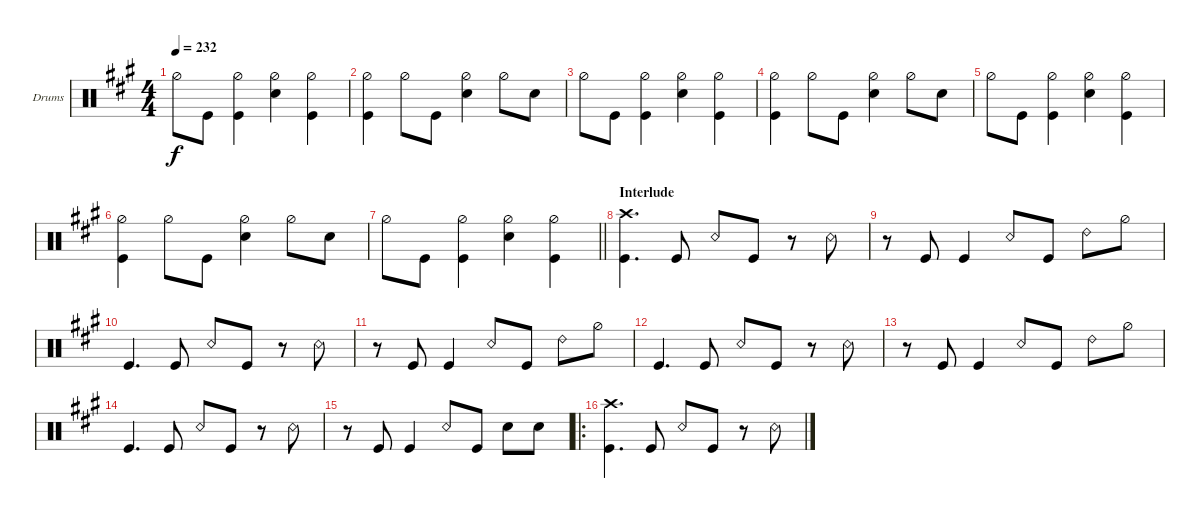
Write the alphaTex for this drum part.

\defaultSystemsLayout 4
\bracketExtendMode groupsimilarinstruments
\firstSystemTrackNameOrientation horizontal
\otherSystemsTrackNameOrientation horizontal
\track ("Drums" "Drums") {instrument percussion}
\staff {score}
\articulation defaults
\ts (4 4)
\tempo 232
\clef neutral
\ks a "Hi-Hat (half)".8{dy f} "Kick (hit)".8
("Kick (hit)" "Hi-Hat (half)").4 ("Snare (hit) 2" "Hi-Hat (half)").4 ("Kick (hit)" "Hi-Hat (half)").4 |
("Kick (hit)" "Hi-Hat (half)").4 "Hi-Hat (half)".8 "Kick (hit)".8 ("Snare (hit) 2" "Hi-Hat (half)").4 "Hi-Hat (half)".8 "Snare (hit) 2".8 |
"Hi-Hat (half)".8 "Kick (hit)".8 ("Kick (hit)" "Hi-Hat (half)").4 ("Snare (hit) 2" "Hi-Hat (half)").4 ("Kick (hit)" "Hi-Hat (half)").4 |
("Kick (hit)" "Hi-Hat (half)").4 "Hi-Hat (half)".8 "Kick (hit)".8 ("Snare (hit) 2" "Hi-Hat (half)").4 "Hi-Hat (half)".8 "Snare (hit) 2".8 |
"Hi-Hat (half)".8 "Kick (hit)".8 ("Kick (hit)" "Hi-Hat (half)").4 ("Snare (hit) 2" "Hi-Hat (half)").4 ("Kick (hit)" "Hi-Hat (half)").4 |
("Kick (hit)" "Hi-Hat (half)").4 "Hi-Hat (half)".8 "Kick (hit)".8 ("Snare (hit) 2" "Hi-Hat (half)").4 "Hi-Hat (half)".8 "Snare (hit) 2".8 |
\barLineRight lightlight "Hi-Hat (half)".8 "Kick (hit)".8
("Kick (hit)" "Hi-Hat (half)").4 ("Snare (hit) 2" "Hi-Hat (half)").4 ("Kick (hit)" "Hi-Hat (half)").4 |
\section ("" "Interlude")
("Kick (hit)" "Crash high (hit)").4{d} "Kick (hit)".8 "Snare (rim shot)".8 "Kick (hit)".8 r.8 "Snare (rim shot)".8 |
r.8 "Kick (hit)".8 "Kick (hit)".4 "Snare (rim shot)".8 "Kick (hit)".8 "Ride (bell) 2".8 "Hi-Hat (half)".8 |
"Kick (hit)".4{d} "Kick (hit)".8 "Snare (rim shot)".8 "Kick (hit)".8 r.8 "Snare (rim shot)".8 |
r.8 "Kick (hit)".8 "Kick (hit)".4 "Snare (rim shot)".8 "Kick (hit)".8 "Ride (bell) 2".8 "Hi-Hat (half)".8 |
"Kick (hit)".4{d} "Kick (hit)".8 "Snare (rim shot)".8 "Kick (hit)".8 r.8 "Snare (rim shot)".8 |
r.8 "Kick (hit)".8 "Kick (hit)".4 "Snare (rim shot)".8 "Kick (hit)".8 "Ride (bell) 2".8 "Hi-Hat (half)".8 |
"Kick (hit)".4{d} "Kick (hit)".8 "Snare (rim shot)".8 "Kick (hit)".8 r.8 "Snare (rim shot)".8 |
r.8 "Kick (hit)".8 "Kick (hit)".4 "Snare (rim shot)".8 "Kick (hit)".8 "Snare (hit) 2".8 "Snare (hit) 2".8 |
\ro
("Kick (hit)" "Crash high (hit)").4{d} "Kick (hit)".8 "Snare (rim shot)".8 "Kick (hit)".8 r.8 "Snare (rim shot)".8
